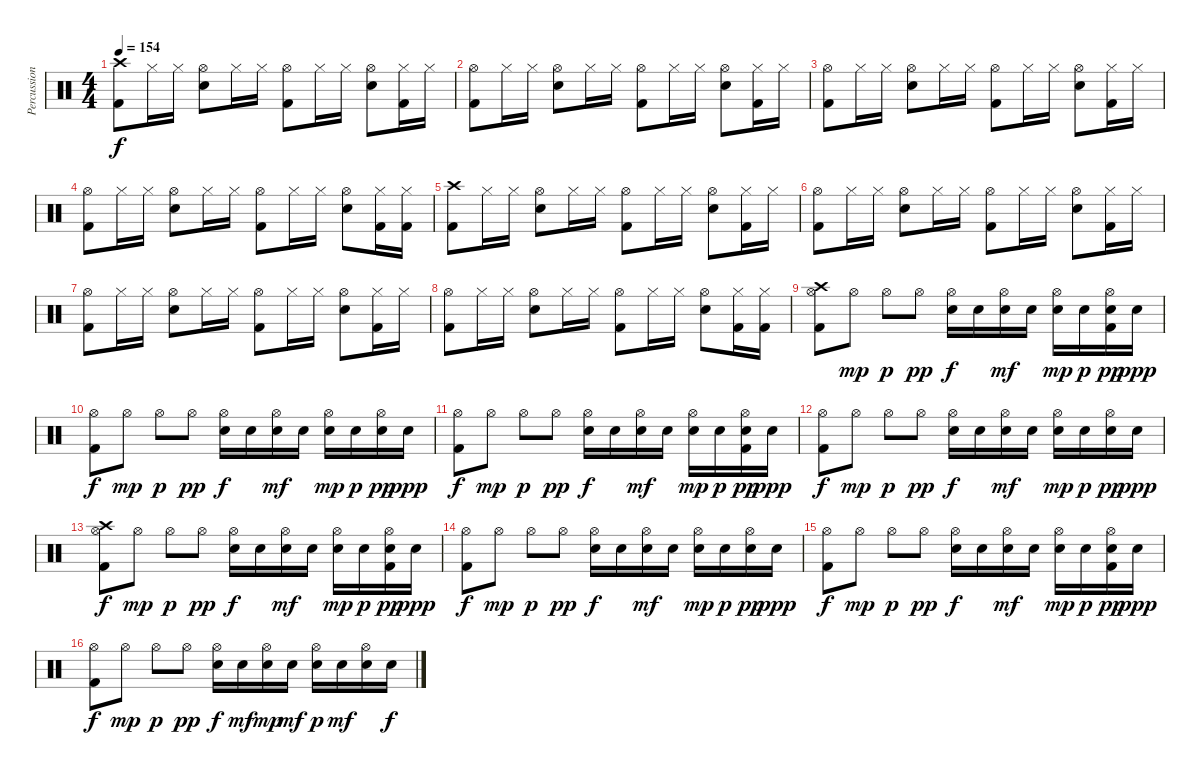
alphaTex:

\track ("Percussion" "Percussion") {instrument percussion}
\staff {score}
\articulation defaults
\ts (4 4)
\tempo 154
\clef neutral
\ks c
("Crash high (hit)" "Kick (hit) 2").8{dy f} "Hi-Hat (closed)".16 "Hi-Hat (closed)".16 ("Hi-Hat (open)" "Snare (hit) 2").8 "Hi-Hat (closed)".16 "Hi-Hat (closed)".16 ("Hi-Hat (open)" "Kick (hit) 2").8 "Hi-Hat (closed)".16 "Hi-Hat (closed)".16 ("Hi-Hat (open)" "Snare (hit) 2").8 ("Hi-Hat (closed)" "Kick (hit) 2").16 "Hi-Hat (closed)".16 |
("Hi-Hat (open)" "Kick (hit) 2").8 "Hi-Hat (closed)".16 "Hi-Hat (closed)".16 ("Hi-Hat (open)" "Snare (hit) 2").8 "Hi-Hat (closed)".16 "Hi-Hat (closed)".16 ("Hi-Hat (open)" "Kick (hit) 2").8 "Hi-Hat (closed)".16 "Hi-Hat (closed)".16 ("Hi-Hat (open)" "Snare (hit) 2").8 ("Hi-Hat (closed)" "Kick (hit) 2").16 "Hi-Hat (closed)".16 |
("Hi-Hat (open)" "Kick (hit) 2").8 "Hi-Hat (closed)".16 "Hi-Hat (closed)".16 ("Hi-Hat (open)" "Snare (hit) 2").8 "Hi-Hat (closed)".16 "Hi-Hat (closed)".16 ("Hi-Hat (open)" "Kick (hit) 2").8 "Hi-Hat (closed)".16 "Hi-Hat (closed)".16 ("Hi-Hat (open)" "Snare (hit) 2").8 ("Hi-Hat (closed)" "Kick (hit) 2").16 "Hi-Hat (closed)".16 |
("Hi-Hat (open)" "Kick (hit) 2").8 "Hi-Hat (closed)".16 "Hi-Hat (closed)".16 ("Hi-Hat (open)" "Snare (hit) 2").8 "Hi-Hat (closed)".16 "Hi-Hat (closed)".16 ("Hi-Hat (open)" "Kick (hit) 2").8 "Hi-Hat (closed)".16 "Hi-Hat (closed)".16 ("Hi-Hat (open)" "Snare (hit) 2").8 ("Hi-Hat (closed)" "Kick (hit) 2").16 ("Hi-Hat (closed)" "Kick (hit) 2").16 |
("Crash high (hit)" "Kick (hit) 2").8 "Hi-Hat (closed)".16 "Hi-Hat (closed)".16 ("Hi-Hat (open)" "Snare (hit) 2").8 "Hi-Hat (closed)".16 "Hi-Hat (closed)".16 ("Hi-Hat (open)" "Kick (hit) 2").8 "Hi-Hat (closed)".16 "Hi-Hat (closed)".16 ("Hi-Hat (open)" "Snare (hit) 2").8 ("Hi-Hat (closed)" "Kick (hit) 2").16 "Hi-Hat (closed)".16 |
("Hi-Hat (open)" "Kick (hit) 2").8 "Hi-Hat (closed)".16 "Hi-Hat (closed)".16 ("Hi-Hat (open)" "Snare (hit) 2").8 "Hi-Hat (closed)".16 "Hi-Hat (closed)".16 ("Hi-Hat (open)" "Kick (hit) 2").8 "Hi-Hat (closed)".16 "Hi-Hat (closed)".16 ("Hi-Hat (open)" "Snare (hit) 2").8 ("Hi-Hat (closed)" "Kick (hit) 2").16 "Hi-Hat (closed)".16 |
("Hi-Hat (open)" "Kick (hit) 2").8 "Hi-Hat (closed)".16 "Hi-Hat (closed)".16 ("Hi-Hat (open)" "Snare (hit) 2").8 "Hi-Hat (closed)".16 "Hi-Hat (closed)".16 ("Hi-Hat (open)" "Kick (hit) 2").8 "Hi-Hat (closed)".16 "Hi-Hat (closed)".16 ("Hi-Hat (open)" "Snare (hit) 2").8 ("Hi-Hat (closed)" "Kick (hit) 2").16 "Hi-Hat (closed)".16 |
("Hi-Hat (open)" "Kick (hit) 2").8 "Hi-Hat (closed)".16 "Hi-Hat (closed)".16 ("Hi-Hat (open)" "Snare (hit) 2").8 "Hi-Hat (closed)".16 "Hi-Hat (closed)".16 ("Hi-Hat (open)" "Kick (hit) 2").8 "Hi-Hat (closed)".16 "Hi-Hat (closed)".16 ("Hi-Hat (open)" "Snare (hit) 2").8 ("Hi-Hat (closed)" "Kick (hit) 2").16 ("Hi-Hat (closed)" "Kick (hit) 2").16 |
\section ("" "")
("Crash high (hit)" "Hi-Hat (open)" "Kick (hit) 2").8 "Hi-Hat (open)".8{dy mp} "Hi-Hat (open)".8{dy p} "Hi-Hat (open)".8{dy pp} ("Hi-Hat (open)" "Snare (hit) 2").16{dy f} "Snare (hit) 2".16 ("Hi-Hat (open)" "Snare (hit) 2").16{dy mf} "Snare (hit) 2".16 ("Hi-Hat (open)" "Snare (hit) 2").16{dy mp} "Snare (hit) 2".16{dy p} ("Hi-Hat (open)" "Snare (hit) 2" "Kick (hit) 2").16{dy pp} "Snare (hit) 2".16{dy ppp} |
("Hi-Hat (open)" "Kick (hit) 2").8{dy f} "Hi-Hat (open)".8{dy mp} "Hi-Hat (open)".8{dy p} "Hi-Hat (open)".8{dy pp} ("Hi-Hat (open)" "Snare (hit) 2").16{dy f} "Snare (hit) 2".16 ("Hi-Hat (open)" "Snare (hit) 2").16{dy mf} "Snare (hit) 2".16 ("Hi-Hat (open)" "Snare (hit) 2").16{dy mp} "Snare (hit) 2".16{dy p} ("Hi-Hat (open)" "Snare (hit) 2").16{dy pp} "Snare (hit) 2".16{dy ppp} |
("Hi-Hat (open)" "Kick (hit) 2").8{dy f} "Hi-Hat (open)".8{dy mp} "Hi-Hat (open)".8{dy p} "Hi-Hat (open)".8{dy pp} ("Hi-Hat (open)" "Snare (hit) 2").16{dy f} "Snare (hit) 2".16 ("Hi-Hat (open)" "Snare (hit) 2").16{dy mf} "Snare (hit) 2".16 ("Hi-Hat (open)" "Snare (hit) 2").16{dy mp} "Snare (hit) 2".16{dy p} ("Hi-Hat (open)" "Snare (hit) 2" "Kick (hit) 2").16{dy pp} "Snare (hit) 2".16{dy ppp} |
("Hi-Hat (open)" "Kick (hit) 2").8{dy f} "Hi-Hat (open)".8{dy mp} "Hi-Hat (open)".8{dy p} "Hi-Hat (open)".8{dy pp} ("Hi-Hat (open)" "Snare (hit) 2").16{dy f} "Snare (hit) 2".16 ("Hi-Hat (open)" "Snare (hit) 2").16{dy mf} "Snare (hit) 2".16 ("Hi-Hat (open)" "Snare (hit) 2").16{dy mp} "Snare (hit) 2".16{dy p} ("Hi-Hat (open)" "Snare (hit) 2").16{dy pp} "Snare (hit) 2".16{dy ppp} |
("Crash high (hit)" "Hi-Hat (open)" "Kick (hit) 2").8{dy f} "Hi-Hat (open)".8{dy mp} "Hi-Hat (open)".8{dy p} "Hi-Hat (open)".8{dy pp} ("Hi-Hat (open)" "Snare (hit) 2").16{dy f} "Snare (hit) 2".16 ("Hi-Hat (open)" "Snare (hit) 2").16{dy mf} "Snare (hit) 2".16 ("Hi-Hat (open)" "Snare (hit) 2").16{dy mp} "Snare (hit) 2".16{dy p} ("Hi-Hat (open)" "Snare (hit) 2" "Kick (hit) 2").16{dy pp} "Snare (hit) 2".16{dy ppp} |
("Hi-Hat (open)" "Kick (hit) 2").8{dy f} "Hi-Hat (open)".8{dy mp} "Hi-Hat (open)".8{dy p} "Hi-Hat (open)".8{dy pp} ("Hi-Hat (open)" "Snare (hit) 2").16{dy f} "Snare (hit) 2".16 ("Hi-Hat (open)" "Snare (hit) 2").16{dy mf} "Snare (hit) 2".16 ("Hi-Hat (open)" "Snare (hit) 2").16{dy mp} "Snare (hit) 2".16{dy p} ("Hi-Hat (open)" "Snare (hit) 2").16{dy pp} "Snare (hit) 2".16{dy ppp} |
("Hi-Hat (open)" "Kick (hit) 2").8{dy f} "Hi-Hat (open)".8{dy mp} "Hi-Hat (open)".8{dy p} "Hi-Hat (open)".8{dy pp} ("Hi-Hat (open)" "Snare (hit) 2").16{dy f} "Snare (hit) 2".16 ("Hi-Hat (open)" "Snare (hit) 2").16{dy mf} "Snare (hit) 2".16 ("Hi-Hat (open)" "Snare (hit) 2").16{dy mp} "Snare (hit) 2".16{dy p} ("Hi-Hat (open)" "Snare (hit) 2" "Kick (hit) 2").16{dy pp} "Snare (hit) 2".16{dy ppp} |
("Hi-Hat (open)" "Kick (hit) 2").8{dy f} "Hi-Hat (open)".8{dy mp} "Hi-Hat (open)".8{dy p} "Hi-Hat (open)".8{dy pp} ("Hi-Hat (open)" "Snare (hit) 2").16{dy f} "Snare (hit) 2".16{dy mf} ("Hi-Hat (open)" "Snare (hit) 2").16{dy mp} "Snare (hit) 2".16{dy mf} ("Hi-Hat (open)" "Snare (hit) 2").16{dy p} "Snare (hit) 2".16{dy mf} ("Hi-Hat (open)" "Snare (hit) 2").16 "Snare (hit) 2".16{dy f}
